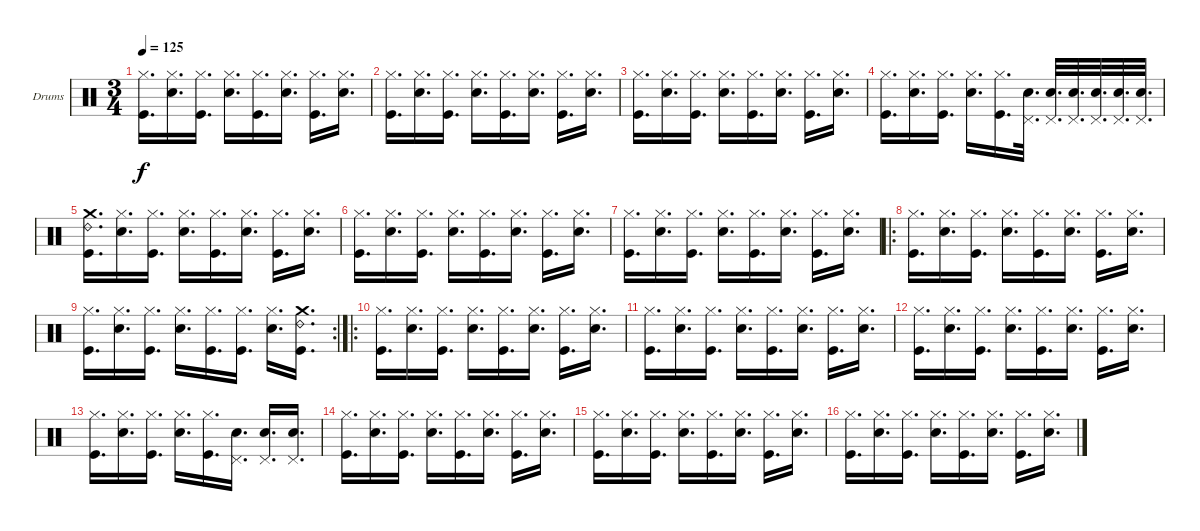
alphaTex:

\defaultSystemsLayout 4
\bracketExtendMode groupsimilarinstruments
\firstSystemTrackNameOrientation horizontal
\otherSystemsTrackNameOrientation horizontal
\track ("Drumkit" "Drums") {instrument percussion}
\staff {score}
\articulation defaults
\ts (3 4)
\tempo 125
\clef neutral
\ks c
("Kick (hit)" "Hi-Hat (closed)").16{d dy f} ("Snare (hit) 2" "Hi-Hat (closed)").16{d} ("Kick (hit)" "Hi-Hat (closed)").16{d} ("Snare (hit) 2" "Hi-Hat (closed)").16{d} ("Kick (hit)" "Hi-Hat (closed)").16{d} ("Snare (hit) 2" "Hi-Hat (closed)").16{d} ("Kick (hit)" "Hi-Hat (closed)").16{d} ("Snare (hit) 2" "Hi-Hat (closed)").16{d} |
("Kick (hit)" "Hi-Hat (closed)").16{d} ("Snare (hit) 2" "Hi-Hat (closed)").16{d} ("Kick (hit)" "Hi-Hat (closed)").16{d} ("Snare (hit) 2" "Hi-Hat (closed)").16{d} ("Kick (hit)" "Hi-Hat (closed)").16{d} ("Snare (hit) 2" "Hi-Hat (closed)").16{d} ("Kick (hit)" "Hi-Hat (closed)").16{d} ("Snare (hit) 2" "Hi-Hat (closed)").16{d} |
("Kick (hit)" "Hi-Hat (closed)").16{d} ("Snare (hit) 2" "Hi-Hat (closed)").16{d} ("Kick (hit)" "Hi-Hat (closed)").16{d} ("Snare (hit) 2" "Hi-Hat (closed)").16{d} ("Kick (hit)" "Hi-Hat (closed)").16{d} ("Snare (hit) 2" "Hi-Hat (closed)").16{d} ("Kick (hit)" "Hi-Hat (closed)").16{d} ("Snare (hit) 2" "Hi-Hat (closed)").16{d} |
("Kick (hit)" "Hi-Hat (closed)").16{d} ("Snare (hit) 2" "Hi-Hat (closed)").16{d} ("Kick (hit)" "Hi-Hat (closed)").16{d} ("Snare (hit) 2" "Hi-Hat (closed)").16{d} ("Kick (hit)" "Hi-Hat (closed)").16{d} ("Pedal Hi-Hat (hit)" "Snare (hit) 2").32{d} ("Pedal Hi-Hat (hit)" "Snare (hit) 2").32{d} ("Pedal Hi-Hat (hit)" "Snare (hit) 2").32{d} ("Pedal Hi-Hat (hit)" "Snare (hit) 2").32{d} ("Pedal Hi-Hat (hit)" "Snare (hit) 2").32{d} ("Pedal Hi-Hat (hit)" "Snare (hit) 2").32{d} |
("Kick (hit)" "Crash medium (hit)" "Ride (bell) 2").16{d} ("Snare (hit) 2" "Hi-Hat (closed)").16{d} ("Kick (hit)" "Hi-Hat (closed)").16{d} ("Snare (hit) 2" "Hi-Hat (closed)").16{d} ("Kick (hit)" "Hi-Hat (closed)").16{d} ("Snare (hit) 2" "Hi-Hat (closed)").16{d} ("Kick (hit)" "Hi-Hat (closed)").16{d} ("Snare (hit) 2" "Hi-Hat (closed)").16{d} |
("Kick (hit)" "Hi-Hat (closed)").16{d} ("Snare (hit) 2" "Hi-Hat (closed)").16{d} ("Kick (hit)" "Hi-Hat (closed)").16{d} ("Snare (hit) 2" "Hi-Hat (closed)").16{d} ("Kick (hit)" "Hi-Hat (closed)").16{d} ("Snare (hit) 2" "Hi-Hat (closed)").16{d} ("Kick (hit)" "Hi-Hat (closed)").16{d} ("Snare (hit) 2" "Hi-Hat (closed)").16{d} |
("Kick (hit)" "Hi-Hat (closed)").16{d} ("Snare (hit) 2" "Hi-Hat (closed)").16{d} ("Kick (hit)" "Hi-Hat (closed)").16{d} ("Snare (hit) 2" "Hi-Hat (closed)").16{d} ("Kick (hit)" "Hi-Hat (closed)").16{d} ("Snare (hit) 2" "Hi-Hat (closed)").16{d} ("Kick (hit)" "Hi-Hat (closed)").16{d} ("Snare (hit) 2" "Hi-Hat (closed)").16{d} |
\ro
("Kick (hit)" "Hi-Hat (closed)").16{d} ("Snare (hit) 2" "Hi-Hat (closed)").16{d} ("Kick (hit)" "Hi-Hat (closed)").16{d} ("Snare (hit) 2" "Hi-Hat (closed)").16{d} ("Kick (hit)" "Hi-Hat (closed)").16{d} ("Snare (hit) 2" "Hi-Hat (closed)").16{d} ("Kick (hit)" "Hi-Hat (closed)").16{d} ("Snare (hit) 2" "Hi-Hat (closed)").16{d} |
\rc 2
("Kick (hit)" "Hi-Hat (closed)").16{d} ("Snare (hit) 2" "Hi-Hat (closed)").16{d} ("Kick (hit)" "Hi-Hat (closed)").16{d} ("Snare (hit) 2" "Hi-Hat (closed)").16{d} ("Kick (hit)" "Hi-Hat (closed)").16{d} ("Kick (hit)" "Hi-Hat (closed)").16{d} ("Snare (hit) 2" "Hi-Hat (closed)").16{d} ("Kick (hit)" "Crash medium (hit)" "Ride (bell) 2").16{d} |
\ro
("Kick (hit)" "Hi-Hat (closed)").16{d} ("Snare (hit) 2" "Hi-Hat (closed)").16{d} ("Kick (hit)" "Hi-Hat (closed)").16{d} ("Snare (hit) 2" "Hi-Hat (closed)").16{d} ("Kick (hit)" "Hi-Hat (closed)").16{d} ("Snare (hit) 2" "Hi-Hat (closed)").16{d} ("Kick (hit)" "Hi-Hat (closed)").16{d} ("Snare (hit) 2" "Hi-Hat (closed)").16{d} |
("Kick (hit)" "Hi-Hat (closed)").16{d} ("Snare (hit) 2" "Hi-Hat (closed)").16{d} ("Kick (hit)" "Hi-Hat (closed)").16{d} ("Snare (hit) 2" "Hi-Hat (closed)").16{d} ("Kick (hit)" "Hi-Hat (closed)").16{d} ("Snare (hit) 2" "Hi-Hat (closed)").16{d} ("Kick (hit)" "Hi-Hat (closed)").16{d} ("Snare (hit) 2" "Hi-Hat (closed)").16{d} |
("Kick (hit)" "Hi-Hat (closed)").16{d} ("Snare (hit) 2" "Hi-Hat (closed)").16{d} ("Kick (hit)" "Hi-Hat (closed)").16{d} ("Snare (hit) 2" "Hi-Hat (closed)").16{d} ("Kick (hit)" "Hi-Hat (closed)").16{d} ("Snare (hit) 2" "Hi-Hat (closed)").16{d} ("Kick (hit)" "Hi-Hat (closed)").16{d} ("Snare (hit) 2" "Hi-Hat (closed)").16{d} |
("Kick (hit)" "Hi-Hat (closed)").16{d} ("Snare (hit) 2" "Hi-Hat (closed)").16{d} ("Kick (hit)" "Hi-Hat (closed)").16{d} ("Snare (hit) 2" "Hi-Hat (closed)").16{d} ("Kick (hit)" "Hi-Hat (closed)").16{d} ("Pedal Hi-Hat (hit)" "Snare (hit) 2").16{d} ("Pedal Hi-Hat (hit)" "Snare (hit) 2").16{d} ("Pedal Hi-Hat (hit)" "Snare (hit) 2").16{d} |
("Kick (hit)" "Hi-Hat (closed)").16{d} ("Snare (hit) 2" "Hi-Hat (closed)").16{d} ("Kick (hit)" "Hi-Hat (closed)").16{d} ("Snare (hit) 2" "Hi-Hat (closed)").16{d} ("Kick (hit)" "Hi-Hat (closed)").16{d} ("Snare (hit) 2" "Hi-Hat (closed)").16{d} ("Kick (hit)" "Hi-Hat (closed)").16{d} ("Snare (hit) 2" "Hi-Hat (closed)").16{d} |
("Kick (hit)" "Hi-Hat (closed)").16{d} ("Snare (hit) 2" "Hi-Hat (closed)").16{d} ("Kick (hit)" "Hi-Hat (closed)").16{d} ("Snare (hit) 2" "Hi-Hat (closed)").16{d} ("Kick (hit)" "Hi-Hat (closed)").16{d} ("Snare (hit) 2" "Hi-Hat (closed)").16{d} ("Kick (hit)" "Hi-Hat (closed)").16{d} ("Snare (hit) 2" "Hi-Hat (closed)").16{d} |
("Kick (hit)" "Hi-Hat (closed)").16{d} ("Snare (hit) 2" "Hi-Hat (closed)").16{d} ("Kick (hit)" "Hi-Hat (closed)").16{d} ("Snare (hit) 2" "Hi-Hat (closed)").16{d} ("Kick (hit)" "Hi-Hat (closed)").16{d} ("Snare (hit) 2" "Hi-Hat (closed)").16{d} ("Kick (hit)" "Hi-Hat (closed)").16{d} ("Snare (hit) 2" "Hi-Hat (closed)").16{d}
